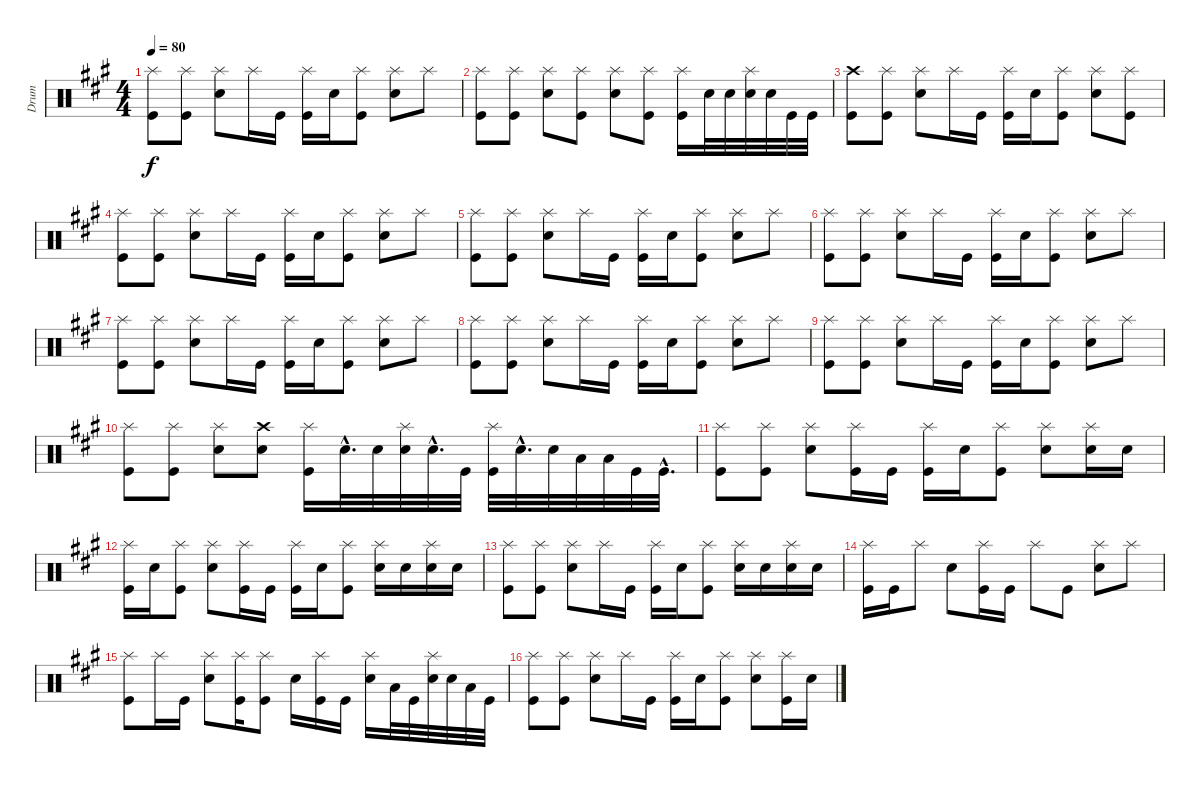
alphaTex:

\track ("Drum" "Drum") {instrument percussion}
\staff {score}
\articulation defaults
\ts (4 4)
\tempo 80
\clef neutral
\ks a
("Splash (hit)" "Kick (hit)").8{dy f} ("Splash (hit)" "Kick (hit)").8 ("Splash (hit)" "Electric Snare (hit)").8 "Splash (hit)".16 "Kick (hit)".16 ("Splash (hit)" "Kick (hit)").16 "Electric Snare (hit)".16 ("Splash (hit)" "Kick (hit)").8 ("Splash (hit)" "Electric Snare (hit)").8 "Splash (hit)".8 |
("Splash (hit)" "Kick (hit)").8 ("Splash (hit)" "Kick (hit)").8 ("Splash (hit)" "Electric Snare (hit)").8 ("Splash (hit)" "Kick (hit)").8 ("Splash (hit)" "Electric Snare (hit)").8 ("Splash (hit)" "Kick (hit)").8 ("Splash (hit)" "Kick (hit)").16 "Electric Snare (hit)".32 "Electric Snare (hit)".32 ("Splash (hit)" "Electric Snare (hit)").32 "Electric Snare (hit)".32 "Kick (hit)".32 "Kick (hit)".32 |
("Crash high (hit)" "Kick (hit)").8 ("Splash (hit)" "Kick (hit)").8 ("Splash (hit)" "Electric Snare (hit)").8 "Splash (hit)".16 "Kick (hit)".16 ("Splash (hit)" "Kick (hit)").16 "Electric Snare (hit)".16 ("Splash (hit)" "Kick (hit)").8 ("Splash (hit)" "Electric Snare (hit)").8 ("Splash (hit)" "Kick (hit)").8 |
("Splash (hit)" "Kick (hit)").8 ("Splash (hit)" "Kick (hit)").8 ("Splash (hit)" "Electric Snare (hit)").8 "Splash (hit)".16 "Kick (hit)".16 ("Splash (hit)" "Kick (hit)").16 "Electric Snare (hit)".16 ("Splash (hit)" "Kick (hit)").8 ("Splash (hit)" "Electric Snare (hit)").8 "Splash (hit)".8 |
("Splash (hit)" "Kick (hit)").8 ("Splash (hit)" "Kick (hit)").8 ("Splash (hit)" "Electric Snare (hit)").8 "Splash (hit)".16 "Kick (hit)".16 ("Splash (hit)" "Kick (hit)").16 "Electric Snare (hit)".16 ("Splash (hit)" "Kick (hit)").8 ("Splash (hit)" "Electric Snare (hit)").8 "Splash (hit)".8 |
("Splash (hit)" "Kick (hit)").8 ("Splash (hit)" "Kick (hit)").8 ("Splash (hit)" "Electric Snare (hit)").8 "Splash (hit)".16 "Kick (hit)".16 ("Splash (hit)" "Kick (hit)").16 "Electric Snare (hit)".16 ("Splash (hit)" "Kick (hit)").8 ("Splash (hit)" "Electric Snare (hit)").8 "Splash (hit)".8 |
("Splash (hit)" "Kick (hit)").8 ("Splash (hit)" "Kick (hit)").8 ("Splash (hit)" "Electric Snare (hit)").8 "Splash (hit)".16 "Kick (hit)".16 ("Splash (hit)" "Kick (hit)").16 "Electric Snare (hit)".16 ("Splash (hit)" "Kick (hit)").8 ("Splash (hit)" "Electric Snare (hit)").8 "Splash (hit)".8 |
("Splash (hit)" "Kick (hit)").8 ("Splash (hit)" "Kick (hit)").8 ("Splash (hit)" "Electric Snare (hit)").8 "Splash (hit)".16 "Kick (hit)".16 ("Splash (hit)" "Kick (hit)").16 "Electric Snare (hit)".16 ("Splash (hit)" "Kick (hit)").8 ("Splash (hit)" "Electric Snare (hit)").8 "Splash (hit)".8 |
("Splash (hit)" "Kick (hit)").8 ("Splash (hit)" "Kick (hit)").8 ("Splash (hit)" "Electric Snare (hit)").8 "Splash (hit)".16 "Kick (hit)".16 ("Splash (hit)" "Kick (hit)").16 "Electric Snare (hit)".16 ("Splash (hit)" "Kick (hit)").8 ("Splash (hit)" "Electric Snare (hit)").8 "Splash (hit)".8 |
("Splash (hit)" "Kick (hit)").8 ("Splash (hit)" "Kick (hit)").8 ("Splash (hit)" "Electric Snare (hit)").8 ("Crash high (hit)" "Electric Snare (hit)").8 ("Splash (hit)" "Kick (hit)").16 "Electric Snare (hit)"{hac}.32{d} "Electric Snare (hit)".32 ("Splash (hit)" "Electric Snare (hit)").32 "Electric Snare (hit)"{hac}.32{d} "Kick (hit)".32 ("Splash (hit)" "Kick (hit)").32 "Electric Snare (hit)"{hac}.32{d} "Electric Snare (hit)".32 "Low Floor Tom (hit)".32 "Low Floor Tom (hit)".32 "Kick (hit)".32 "Kick (hit)"{hac}.32{d} |
("Splash (hit)" "Kick (hit)").8 ("Splash (hit)" "Kick (hit)").8 ("Splash (hit)" "Electric Snare (hit)").8 ("Splash (hit)" "Kick (hit)").16 "Kick (hit)".16 ("Splash (hit)" "Kick (hit)").16 "Electric Snare (hit)".16 ("Splash (hit)" "Kick (hit)").8 ("Splash (hit)" "Electric Snare (hit)").8 ("Splash (hit)" "Electric Snare (hit)").16 "Electric Snare (hit)".16 |
("Splash (hit)" "Kick (hit)").16 "Electric Snare (hit)".16 ("Splash (hit)" "Kick (hit)").8 ("Splash (hit)" "Electric Snare (hit)").8 ("Splash (hit)" "Kick (hit)").16 "Kick (hit)".16 ("Splash (hit)" "Kick (hit)").16 "Electric Snare (hit)".16 ("Splash (hit)" "Kick (hit)").8 ("Splash (hit)" "Electric Snare (hit)").16 "Electric Snare (hit)".16 ("Splash (hit)" "Electric Snare (hit)").16 "Electric Snare (hit)".16 |
("Splash (hit)" "Kick (hit)").8 ("Splash (hit)" "Kick (hit)").8 ("Splash (hit)" "Electric Snare (hit)").8 "Splash (hit)".16 "Kick (hit)".16 ("Splash (hit)" "Kick (hit)").16 "Electric Snare (hit)".16 ("Splash (hit)" "Kick (hit)").8 ("Splash (hit)" "Electric Snare (hit)").16 "Electric Snare (hit)".16 ("Splash (hit)" "Electric Snare (hit)").16 "Electric Snare (hit)".16 |
("Splash (hit)" "Kick (hit)").16 "Kick (hit)".16 "Splash (hit)".8 "Electric Snare (hit)".8 ("Splash (hit)" "Kick (hit)").16 "Kick (hit)".16 "Splash (hit)".8 "Kick (hit)".8 ("Splash (hit)" "Electric Snare (hit)").8 "Splash (hit)".8 |
("Splash (hit)" "Kick (hit)").8 "Splash (hit)".16 "Kick (hit)".16 ("Splash (hit)" "Electric Snare (hit)").8 ("Splash (hit)" "Kick (hit)").16 ("Splash (hit)" "Kick (hit)").8 "Electric Snare (hit)".16 ("Splash (hit)" "Kick (hit)").16 "Kick (hit)".16 ("Splash (hit)" "Electric Snare (hit)").16 "Low Floor Tom (hit)".32 "Kick (hit)".32 ("Splash (hit)" "Electric Snare (hit)").32 "Electric Snare (hit)".32 "Low Floor Tom (hit)".32 "Kick (hit)".32 |
("Splash (hit)" "Kick (hit)").8 ("Splash (hit)" "Kick (hit)").8 ("Splash (hit)" "Electric Snare (hit)").8 "Splash (hit)".16 "Kick (hit)".16 ("Splash (hit)" "Kick (hit)").16 "Electric Snare (hit)".16 ("Splash (hit)" "Kick (hit)").8 ("Splash (hit)" "Electric Snare (hit)").8 ("Splash (hit)" "Kick (hit)").16 "Electric Snare (hit)".16
